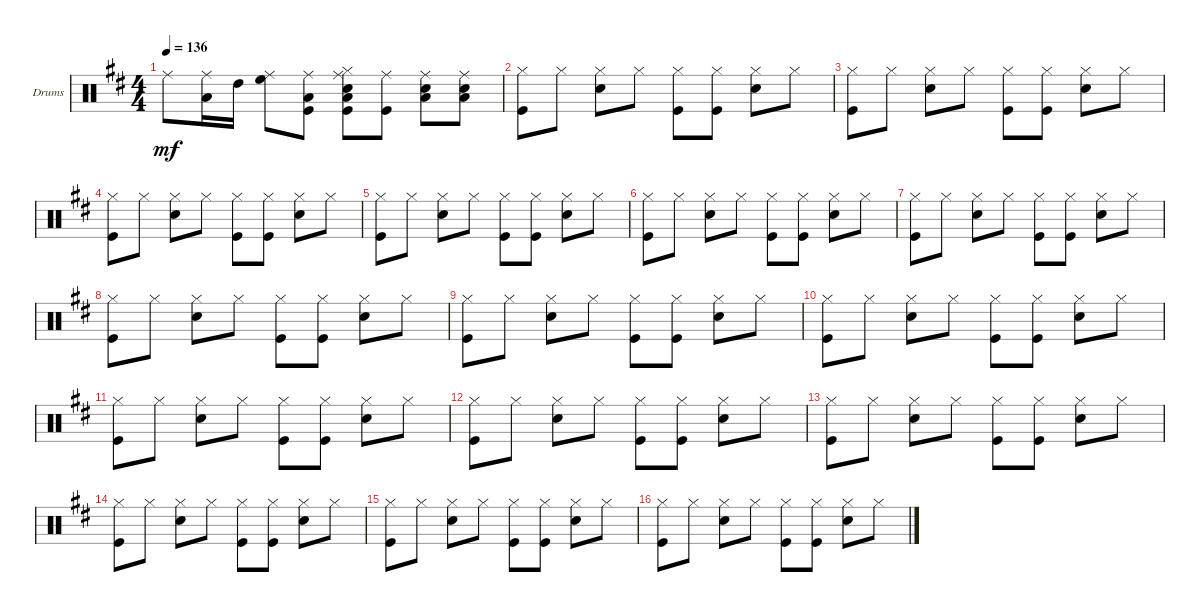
\defaultSystemsLayout 4
\bracketExtendMode groupsimilarinstruments
\firstSystemTrackNameOrientation horizontal
\otherSystemsTrackNameOrientation horizontal
\track ("Greg Bissonette Drums" "Drums") {instrument percussion}
\staff {score}
\articulation defaults
\ts (4 4)
\tempo 136
\clef neutral
\scale
0.333333
\ks d "Ride (middle)".8{dy mf}
("Ride (middle)" "Low Tom (hit)").16 "High Tom (hit)".16 ("High Floor Tom (hit)" "Ride (middle)").8 ("Kick (hit)" "Low Tom (hit)" "Ride (middle)").8 ("Kick (hit)" "Snare (hit) 2" "Hi-Hat (closed)" "Low Tom (hit)" "Ride (middle)").8 ("Kick (hit)" "Ride (middle)").8 ("Snare (hit) 2" "Low Tom (hit)" "Ride (middle)").8 ("Snare (hit) 2" "Low Tom (hit)" "Ride (middle)").8 |
\scale
0.333333 ("Kick (hit)" "Hi-Hat (closed)").8 "Hi-Hat (closed)".8 ("Snare (hit) 2" "Hi-Hat (closed)").8 "Hi-Hat (closed)".8 ("Kick (hit)" "Hi-Hat (closed)").8 ("Kick (hit)" "Hi-Hat (closed)").8 ("Snare (hit) 2" "Hi-Hat (closed)").8 "Hi-Hat (closed)".8 |
\scale
0.333333 ("Kick (hit)" "Hi-Hat (closed)").8 "Hi-Hat (closed)".8 ("Snare (hit) 2" "Hi-Hat (closed)").8 "Hi-Hat (closed)".8 ("Kick (hit)" "Hi-Hat (closed)").8 ("Kick (hit)" "Hi-Hat (closed)").8 ("Snare (hit) 2" "Hi-Hat (closed)").8 "Hi-Hat (closed)".8 |
\scale
0.333333 ("Kick (hit)" "Hi-Hat (closed)").8 "Hi-Hat (closed)".8 ("Snare (hit) 2" "Hi-Hat (closed)").8 "Hi-Hat (closed)".8 ("Kick (hit)" "Hi-Hat (closed)").8 ("Kick (hit)" "Hi-Hat (closed)").8 ("Snare (hit) 2" "Hi-Hat (closed)").8 "Hi-Hat (closed)".8 |
\scale
0.333333 ("Kick (hit)" "Hi-Hat (closed)").8 "Hi-Hat (closed)".8 ("Snare (hit) 2" "Hi-Hat (closed)").8 "Hi-Hat (closed)".8 ("Kick (hit)" "Hi-Hat (closed)").8 ("Kick (hit)" "Hi-Hat (closed)").8 ("Snare (hit) 2" "Hi-Hat (closed)").8 "Hi-Hat (closed)".8 |
\scale
0.333333 ("Kick (hit)" "Hi-Hat (closed)").8 "Hi-Hat (closed)".8 ("Snare (hit) 2" "Hi-Hat (closed)").8 "Hi-Hat (closed)".8 ("Kick (hit)" "Hi-Hat (closed)").8 ("Kick (hit)" "Hi-Hat (closed)").8 ("Snare (hit) 2" "Hi-Hat (closed)").8 "Hi-Hat (closed)".8 |
\scale
0.333333 ("Kick (hit)" "Hi-Hat (closed)").8 "Hi-Hat (closed)".8 ("Snare (hit) 2" "Hi-Hat (closed)").8 "Hi-Hat (closed)".8 ("Kick (hit)" "Hi-Hat (closed)").8 ("Kick (hit)" "Hi-Hat (closed)").8 ("Snare (hit) 2" "Hi-Hat (closed)").8 "Hi-Hat (closed)".8 |
\scale
0.333333 ("Kick (hit)" "Hi-Hat (closed)").8 "Hi-Hat (closed)".8 ("Snare (hit) 2" "Hi-Hat (closed)").8 "Hi-Hat (closed)".8 ("Kick (hit)" "Hi-Hat (closed)").8 ("Kick (hit)" "Hi-Hat (closed)").8 ("Snare (hit) 2" "Hi-Hat (closed)").8 "Hi-Hat (closed)".8 |
\scale
0.333333 ("Kick (hit)" "Hi-Hat (closed)").8 "Hi-Hat (closed)".8 ("Snare (hit) 2" "Hi-Hat (closed)").8 "Hi-Hat (closed)".8 ("Kick (hit)" "Hi-Hat (closed)").8 ("Kick (hit)" "Hi-Hat (closed)").8 ("Snare (hit) 2" "Hi-Hat (closed)").8 "Hi-Hat (closed)".8 |
\scale
0.333333 ("Kick (hit)" "Hi-Hat (closed)").8 "Hi-Hat (closed)".8 ("Snare (hit) 2" "Hi-Hat (closed)").8 "Hi-Hat (closed)".8 ("Kick (hit)" "Hi-Hat (closed)").8 ("Kick (hit)" "Hi-Hat (closed)").8 ("Snare (hit) 2" "Hi-Hat (closed)").8 "Hi-Hat (closed)".8 |
\scale
0.333333 ("Kick (hit)" "Hi-Hat (closed)").8 "Hi-Hat (closed)".8 ("Snare (hit) 2" "Hi-Hat (closed)").8 "Hi-Hat (closed)".8 ("Kick (hit)" "Hi-Hat (closed)").8 ("Kick (hit)" "Hi-Hat (closed)").8 ("Snare (hit) 2" "Hi-Hat (closed)").8 "Hi-Hat (closed)".8 |
\scale
0.333333 ("Kick (hit)" "Hi-Hat (closed)").8 "Hi-Hat (closed)".8 ("Snare (hit) 2" "Hi-Hat (closed)").8 "Hi-Hat (closed)".8 ("Kick (hit)" "Hi-Hat (closed)").8 ("Kick (hit)" "Hi-Hat (closed)").8 ("Snare (hit) 2" "Hi-Hat (closed)").8 "Hi-Hat (closed)".8 |
\scale
0.333333 ("Kick (hit)" "Hi-Hat (closed)").8 "Hi-Hat (closed)".8 ("Snare (hit) 2" "Hi-Hat (closed)").8 "Hi-Hat (closed)".8 ("Kick (hit)" "Hi-Hat (closed)").8 ("Kick (hit)" "Hi-Hat (closed)").8 ("Snare (hit) 2" "Hi-Hat (closed)").8 "Hi-Hat (closed)".8 |
\scale
0.333333 ("Kick (hit)" "Hi-Hat (closed)").8 "Hi-Hat (closed)".8 ("Snare (hit) 2" "Hi-Hat (closed)").8 "Hi-Hat (closed)".8 ("Kick (hit)" "Hi-Hat (closed)").8 ("Kick (hit)" "Hi-Hat (closed)").8 ("Snare (hit) 2" "Hi-Hat (closed)").8 "Hi-Hat (closed)".8 |
\scale
0.333333 ("Kick (hit)" "Hi-Hat (closed)").8 "Hi-Hat (closed)".8 ("Snare (hit) 2" "Hi-Hat (closed)").8 "Hi-Hat (closed)".8 ("Kick (hit)" "Hi-Hat (closed)").8 ("Kick (hit)" "Hi-Hat (closed)").8 ("Snare (hit) 2" "Hi-Hat (closed)").8 "Hi-Hat (closed)".8 |
\scale
0.333333 ("Kick (hit)" "Hi-Hat (closed)").8 "Hi-Hat (closed)".8 ("Snare (hit) 2" "Hi-Hat (closed)").8 "Hi-Hat (closed)".8 ("Kick (hit)" "Hi-Hat (closed)").8 ("Kick (hit)" "Hi-Hat (closed)").8 ("Snare (hit) 2" "Hi-Hat (closed)").8 "Hi-Hat (closed)".8
